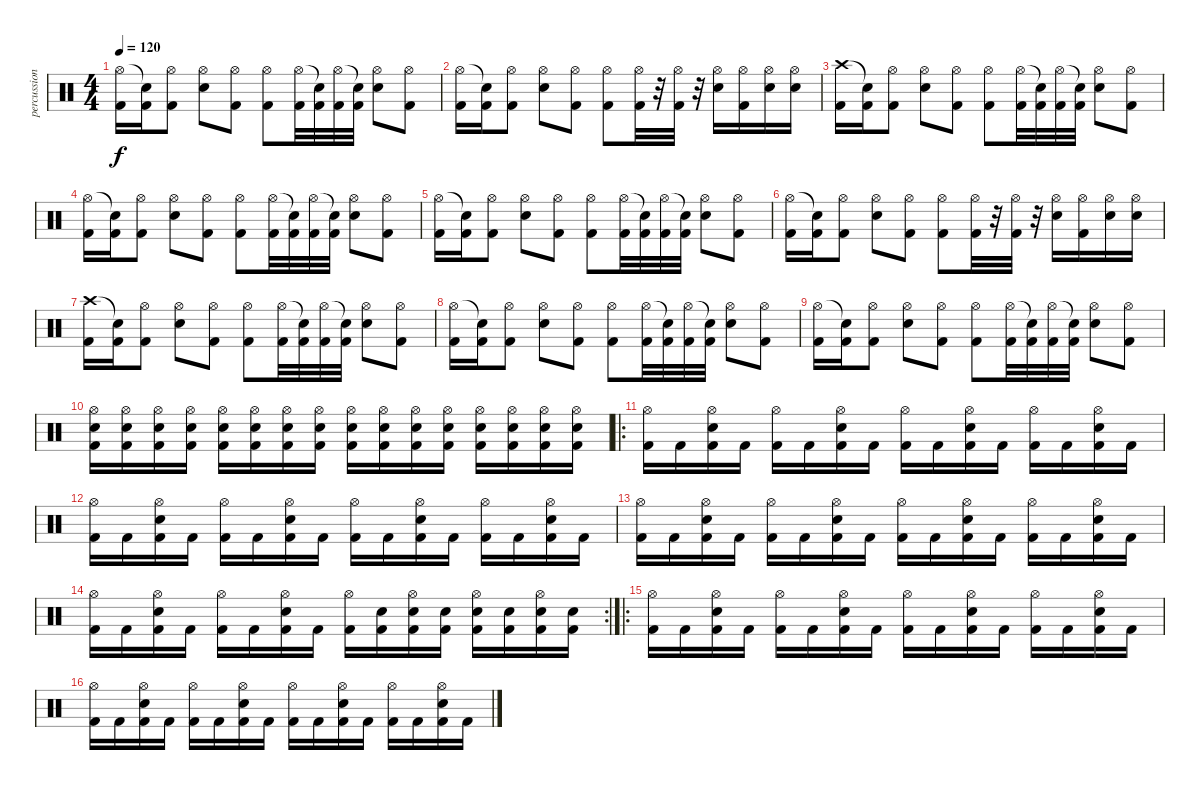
\track ("percussions" "percussion") {instrument percussion}
\staff {score}
\articulation defaults
\ts (4 4)
\tempo 120
\clef neutral
\ks c
("Hi-Hat (open)" "Kick (hit) 2").16{dy f} ("Snare (hit)"{t} "Kick (hit) 2").16 ("Hi-Hat (open)" "Kick (hit) 2").8 ("Hi-Hat (open)" "Electric Snare (hit)").8 ("Hi-Hat (open)" "Kick (hit) 2").8 ("Hi-Hat (open)" "Kick (hit) 2").8 ("Hi-Hat (open)" "Kick (hit) 2").32 ("Snare (hit)"{t} "Kick (hit) 2").32 ("Hi-Hat (open)" "Kick (hit) 2").32 ("Snare (hit)"{t} "Kick (hit) 2").32 ("Hi-Hat (open)" "Electric Snare (hit)").8 ("Hi-Hat (open)" "Kick (hit) 2").8 |
("Hi-Hat (open)" "Kick (hit) 2").16 ("Snare (hit)"{t} "Kick (hit) 2").16 ("Hi-Hat (open)" "Kick (hit) 2").8 ("Hi-Hat (open)" "Electric Snare (hit)").8 ("Hi-Hat (open)" "Kick (hit) 2").8 ("Hi-Hat (open)" "Kick (hit) 2").8 ("Hi-Hat (open)" "Kick (hit) 2").32 r.32 ("Hi-Hat (open)" "Kick (hit) 2").32 r.32 ("Hi-Hat (open)" "Electric Snare (hit)").16 ("Hi-Hat (open)" "Kick (hit) 2").16 ("Hi-Hat (open)" "Electric Snare (hit)").16 ("Hi-Hat (open)" "Electric Snare (hit)").16 |
("Crash high (hit)" "Kick (hit) 2").16 ("Snare (hit)"{t} "Kick (hit) 2").16 ("Hi-Hat (open)" "Kick (hit) 2").8 ("Hi-Hat (open)" "Electric Snare (hit)").8 ("Hi-Hat (open)" "Kick (hit) 2").8 ("Hi-Hat (open)" "Kick (hit) 2").8 ("Hi-Hat (open)" "Kick (hit) 2").32 ("Snare (hit)"{t} "Kick (hit) 2").32 ("Hi-Hat (open)" "Kick (hit) 2").32 ("Snare (hit)"{t} "Kick (hit) 2").32 ("Hi-Hat (open)" "Electric Snare (hit)").8 ("Hi-Hat (open)" "Kick (hit) 2").8 |
("Hi-Hat (open)" "Kick (hit) 2").16 ("Snare (hit)"{t} "Kick (hit) 2").16 ("Hi-Hat (open)" "Kick (hit) 2").8 ("Hi-Hat (open)" "Electric Snare (hit)").8 ("Hi-Hat (open)" "Kick (hit) 2").8 ("Hi-Hat (open)" "Kick (hit) 2").8 ("Hi-Hat (open)" "Kick (hit) 2").32 ("Snare (hit)"{t} "Kick (hit) 2").32 ("Hi-Hat (open)" "Kick (hit) 2").32 ("Snare (hit)"{t} "Kick (hit) 2").32 ("Hi-Hat (open)" "Electric Snare (hit)").8 ("Hi-Hat (open)" "Kick (hit) 2").8 |
("Hi-Hat (open)" "Kick (hit) 2").16 ("Snare (hit)"{t} "Kick (hit) 2").16 ("Hi-Hat (open)" "Kick (hit) 2").8 ("Hi-Hat (open)" "Electric Snare (hit)").8 ("Hi-Hat (open)" "Kick (hit) 2").8 ("Hi-Hat (open)" "Kick (hit) 2").8 ("Hi-Hat (open)" "Kick (hit) 2").32 ("Snare (hit)"{t} "Kick (hit) 2").32 ("Hi-Hat (open)" "Kick (hit) 2").32 ("Snare (hit)"{t} "Kick (hit) 2").32 ("Hi-Hat (open)" "Electric Snare (hit)").8 ("Hi-Hat (open)" "Kick (hit) 2").8 |
("Hi-Hat (open)" "Kick (hit) 2").16 ("Snare (hit)"{t} "Kick (hit) 2").16 ("Hi-Hat (open)" "Kick (hit) 2").8 ("Hi-Hat (open)" "Electric Snare (hit)").8 ("Hi-Hat (open)" "Kick (hit) 2").8 ("Hi-Hat (open)" "Kick (hit) 2").8 ("Hi-Hat (open)" "Kick (hit) 2").32 r.32 ("Hi-Hat (open)" "Kick (hit) 2").32 r.32 ("Hi-Hat (open)" "Electric Snare (hit)").16 ("Hi-Hat (open)" "Kick (hit) 2").16 ("Hi-Hat (open)" "Electric Snare (hit)").16 ("Hi-Hat (open)" "Electric Snare (hit)").16 |
("Crash high (hit)" "Kick (hit) 2").16 ("Snare (hit)"{t} "Kick (hit) 2").16 ("Hi-Hat (open)" "Kick (hit) 2").8 ("Hi-Hat (open)" "Electric Snare (hit)").8 ("Hi-Hat (open)" "Kick (hit) 2").8 ("Hi-Hat (open)" "Kick (hit) 2").8 ("Hi-Hat (open)" "Kick (hit) 2").32 ("Snare (hit)"{t} "Kick (hit) 2").32 ("Hi-Hat (open)" "Kick (hit) 2").32 ("Snare (hit)"{t} "Kick (hit) 2").32 ("Hi-Hat (open)" "Electric Snare (hit)").8 ("Hi-Hat (open)" "Kick (hit) 2").8 |
("Hi-Hat (open)" "Kick (hit) 2").16 ("Snare (hit)"{t} "Kick (hit) 2").16 ("Hi-Hat (open)" "Kick (hit) 2").8 ("Hi-Hat (open)" "Electric Snare (hit)").8 ("Hi-Hat (open)" "Kick (hit) 2").8 ("Hi-Hat (open)" "Kick (hit) 2").8 ("Hi-Hat (open)" "Kick (hit) 2").32 ("Snare (hit)"{t} "Kick (hit) 2").32 ("Hi-Hat (open)" "Kick (hit) 2").32 ("Snare (hit)"{t} "Kick (hit) 2").32 ("Hi-Hat (open)" "Electric Snare (hit)").8 ("Hi-Hat (open)" "Kick (hit) 2").8 |
("Hi-Hat (open)" "Kick (hit) 2").16 ("Snare (hit)"{t} "Kick (hit) 2").16 ("Hi-Hat (open)" "Kick (hit) 2").8 ("Hi-Hat (open)" "Electric Snare (hit)").8 ("Hi-Hat (open)" "Kick (hit) 2").8 ("Hi-Hat (open)" "Kick (hit) 2").8 ("Hi-Hat (open)" "Kick (hit) 2").32 ("Snare (hit)"{t} "Kick (hit) 2").32 ("Hi-Hat (open)" "Kick (hit) 2").32 ("Snare (hit)"{t} "Kick (hit) 2").32 ("Hi-Hat (open)" "Electric Snare (hit)").8 ("Hi-Hat (open)" "Kick (hit) 2").8 |
("Hi-Hat (open)" "Electric Snare (hit)" "Kick (hit) 2").16 ("Hi-Hat (open)" "Electric Snare (hit)" "Kick (hit) 2").16 ("Hi-Hat (open)" "Electric Snare (hit)" "Kick (hit) 2").16 ("Hi-Hat (open)" "Electric Snare (hit)" "Kick (hit) 2").16 ("Hi-Hat (open)" "Electric Snare (hit)" "Kick (hit) 2").16 ("Hi-Hat (open)" "Electric Snare (hit)" "Kick (hit) 2").16 ("Hi-Hat (open)" "Electric Snare (hit)" "Kick (hit) 2").16 ("Hi-Hat (open)" "Electric Snare (hit)" "Kick (hit) 2").16 ("Hi-Hat (open)" "Electric Snare (hit)" "Kick (hit) 2").16 ("Hi-Hat (open)" "Electric Snare (hit)" "Kick (hit) 2").16 ("Hi-Hat (open)" "Electric Snare (hit)" "Kick (hit) 2").16 ("Hi-Hat (open)" "Electric Snare (hit)" "Kick (hit) 2").16 ("Hi-Hat (open)" "Electric Snare (hit)" "Kick (hit) 2").16 ("Hi-Hat (open)" "Electric Snare (hit)" "Kick (hit) 2").16 ("Hi-Hat (open)" "Electric Snare (hit)" "Kick (hit) 2").16 ("Hi-Hat (open)" "Electric Snare (hit)" "Kick (hit) 2").16 |
\ro
("Hi-Hat (open)" "Kick (hit) 2").16 "Kick (hit) 2".16 ("Hi-Hat (open)" "Electric Snare (hit)" "Kick (hit) 2").16 "Kick (hit) 2".16 ("Hi-Hat (open)" "Kick (hit) 2").16 "Kick (hit) 2".16 ("Hi-Hat (open)" "Electric Snare (hit)" "Kick (hit) 2").16 "Kick (hit) 2".16 ("Hi-Hat (open)" "Kick (hit) 2").16 "Kick (hit) 2".16 ("Hi-Hat (open)" "Electric Snare (hit)" "Kick (hit) 2").16 "Kick (hit) 2".16 ("Hi-Hat (open)" "Kick (hit) 2").16 "Kick (hit) 2".16 ("Hi-Hat (open)" "Electric Snare (hit)" "Kick (hit) 2").16 "Kick (hit) 2".16 |
("Hi-Hat (open)" "Kick (hit) 2").16 "Kick (hit) 2".16 ("Hi-Hat (open)" "Electric Snare (hit)" "Kick (hit) 2").16 "Kick (hit) 2".16 ("Hi-Hat (open)" "Kick (hit) 2").16 "Kick (hit) 2".16 ("Hi-Hat (open)" "Electric Snare (hit)" "Kick (hit) 2").16 "Kick (hit) 2".16 ("Hi-Hat (open)" "Kick (hit) 2").16 "Kick (hit) 2".16 ("Hi-Hat (open)" "Electric Snare (hit)" "Kick (hit) 2").16 "Kick (hit) 2".16 ("Hi-Hat (open)" "Kick (hit) 2").16 "Kick (hit) 2".16 ("Hi-Hat (open)" "Electric Snare (hit)" "Kick (hit) 2").16 "Kick (hit) 2".16 |
("Hi-Hat (open)" "Kick (hit) 2").16 "Kick (hit) 2".16 ("Hi-Hat (open)" "Electric Snare (hit)" "Kick (hit) 2").16 "Kick (hit) 2".16 ("Hi-Hat (open)" "Kick (hit) 2").16 "Kick (hit) 2".16 ("Hi-Hat (open)" "Electric Snare (hit)" "Kick (hit) 2").16 "Kick (hit) 2".16 ("Hi-Hat (open)" "Kick (hit) 2").16 "Kick (hit) 2".16 ("Hi-Hat (open)" "Electric Snare (hit)" "Kick (hit) 2").16 "Kick (hit) 2".16 ("Hi-Hat (open)" "Kick (hit) 2").16 "Kick (hit) 2".16 ("Hi-Hat (open)" "Electric Snare (hit)" "Kick (hit) 2").16 "Kick (hit) 2".16 |
\rc 2
("Hi-Hat (open)" "Kick (hit) 2").16 "Kick (hit) 2".16 ("Hi-Hat (open)" "Electric Snare (hit)" "Kick (hit) 2").16 "Kick (hit) 2".16 ("Hi-Hat (open)" "Kick (hit) 2").16 "Kick (hit) 2".16 ("Hi-Hat (open)" "Electric Snare (hit)" "Kick (hit) 2").16 "Kick (hit) 2".16 ("Hi-Hat (open)" "Kick (hit) 2").16 ("Electric Snare (hit)" "Kick (hit) 2").16 ("Hi-Hat (open)" "Electric Snare (hit)" "Kick (hit) 2").16 ("Electric Snare (hit)" "Kick (hit) 2").16 ("Hi-Hat (open)" "Electric Snare (hit)" "Kick (hit) 2").16 ("Electric Snare (hit)" "Kick (hit) 2").16 ("Hi-Hat (open)" "Electric Snare (hit)" "Kick (hit) 2").16 ("Electric Snare (hit)" "Kick (hit) 2").16 |
\ro
("Hi-Hat (open)" "Kick (hit) 2").16 "Kick (hit) 2".16 ("Hi-Hat (open)" "Electric Snare (hit)" "Kick (hit) 2").16 "Kick (hit) 2".16 ("Hi-Hat (open)" "Kick (hit) 2").16 "Kick (hit) 2".16 ("Hi-Hat (open)" "Electric Snare (hit)" "Kick (hit) 2").16 "Kick (hit) 2".16 ("Hi-Hat (open)" "Kick (hit) 2").16 "Kick (hit) 2".16 ("Hi-Hat (open)" "Electric Snare (hit)" "Kick (hit) 2").16 "Kick (hit) 2".16 ("Hi-Hat (open)" "Kick (hit) 2").16 "Kick (hit) 2".16 ("Hi-Hat (open)" "Electric Snare (hit)" "Kick (hit) 2").16 "Kick (hit) 2".16 |
("Hi-Hat (open)" "Kick (hit) 2").16 "Kick (hit) 2".16 ("Hi-Hat (open)" "Electric Snare (hit)" "Kick (hit) 2").16 "Kick (hit) 2".16 ("Hi-Hat (open)" "Kick (hit) 2").16 "Kick (hit) 2".16 ("Hi-Hat (open)" "Electric Snare (hit)" "Kick (hit) 2").16 "Kick (hit) 2".16 ("Hi-Hat (open)" "Kick (hit) 2").16 "Kick (hit) 2".16 ("Hi-Hat (open)" "Electric Snare (hit)" "Kick (hit) 2").16 "Kick (hit) 2".16 ("Hi-Hat (open)" "Kick (hit) 2").16 "Kick (hit) 2".16 ("Hi-Hat (open)" "Electric Snare (hit)" "Kick (hit) 2").16 "Kick (hit) 2".16
